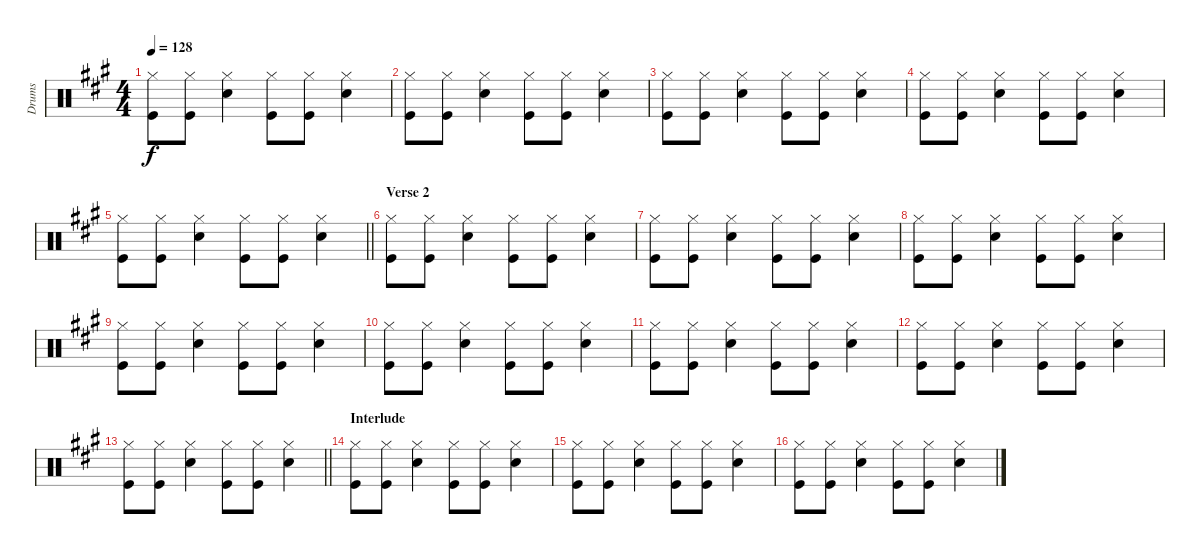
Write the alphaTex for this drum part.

\track ("Drums" "Drums") {instrument percussion}
\staff
\articulation defaults
\ts (4 4)
\tempo 128
\clef neutral
\ks a
("Hi-Hat (closed)" "Kick (hit)").8{dy f} ("Hi-Hat (closed)" "Kick (hit)").8 ("Hi-Hat (closed)" "Snare (hit) 2").4 ("Hi-Hat (closed)" "Kick (hit)").8 ("Hi-Hat (closed)" "Kick (hit)").8 ("Hi-Hat (closed)" "Snare (hit) 2").4 |
("Hi-Hat (closed)" "Kick (hit)").8 ("Hi-Hat (closed)" "Kick (hit)").8 ("Hi-Hat (closed)" "Snare (hit) 2").4 ("Hi-Hat (closed)" "Kick (hit)").8 ("Hi-Hat (closed)" "Kick (hit)").8 ("Hi-Hat (closed)" "Snare (hit) 2").4 |
("Hi-Hat (closed)" "Kick (hit)").8 ("Hi-Hat (closed)" "Kick (hit)").8 ("Hi-Hat (closed)" "Snare (hit) 2").4 ("Hi-Hat (closed)" "Kick (hit)").8 ("Hi-Hat (closed)" "Kick (hit)").8 ("Hi-Hat (closed)" "Snare (hit) 2").4 |
("Hi-Hat (closed)" "Kick (hit)").8 ("Hi-Hat (closed)" "Kick (hit)").8 ("Hi-Hat (closed)" "Snare (hit) 2").4 ("Hi-Hat (closed)" "Kick (hit)").8 ("Hi-Hat (closed)" "Kick (hit)").8 ("Hi-Hat (closed)" "Snare (hit) 2").4 |
\barLineRight lightlight
("Hi-Hat (closed)" "Kick (hit)").8 ("Hi-Hat (closed)" "Kick (hit)").8 ("Hi-Hat (closed)" "Snare (hit) 2").4 ("Hi-Hat (closed)" "Kick (hit)").8 ("Hi-Hat (closed)" "Kick (hit)").8 ("Hi-Hat (closed)" "Snare (hit) 2").4 |
\section ("" "Verse 2")
("Hi-Hat (closed)" "Kick (hit)").8 ("Hi-Hat (closed)" "Kick (hit)").8 ("Hi-Hat (closed)" "Snare (hit) 2").4 ("Hi-Hat (closed)" "Kick (hit)").8 ("Hi-Hat (closed)" "Kick (hit)").8 ("Hi-Hat (closed)" "Snare (hit) 2").4 |
("Hi-Hat (closed)" "Kick (hit)").8 ("Hi-Hat (closed)" "Kick (hit)").8 ("Hi-Hat (closed)" "Snare (hit) 2").4 ("Hi-Hat (closed)" "Kick (hit)").8 ("Hi-Hat (closed)" "Kick (hit)").8 ("Hi-Hat (closed)" "Snare (hit) 2").4 |
("Hi-Hat (closed)" "Kick (hit)").8 ("Hi-Hat (closed)" "Kick (hit)").8 ("Hi-Hat (closed)" "Snare (hit) 2").4 ("Hi-Hat (closed)" "Kick (hit)").8 ("Hi-Hat (closed)" "Kick (hit)").8 ("Hi-Hat (closed)" "Snare (hit) 2").4 |
("Hi-Hat (closed)" "Kick (hit)").8 ("Hi-Hat (closed)" "Kick (hit)").8 ("Hi-Hat (closed)" "Snare (hit) 2").4 ("Hi-Hat (closed)" "Kick (hit)").8 ("Hi-Hat (closed)" "Kick (hit)").8 ("Hi-Hat (closed)" "Snare (hit) 2").4 |
("Hi-Hat (closed)" "Kick (hit)").8 ("Hi-Hat (closed)" "Kick (hit)").8 ("Hi-Hat (closed)" "Snare (hit) 2").4 ("Hi-Hat (closed)" "Kick (hit)").8 ("Hi-Hat (closed)" "Kick (hit)").8 ("Hi-Hat (closed)" "Snare (hit) 2").4 |
("Hi-Hat (closed)" "Kick (hit)").8 ("Hi-Hat (closed)" "Kick (hit)").8 ("Hi-Hat (closed)" "Snare (hit) 2").4 ("Hi-Hat (closed)" "Kick (hit)").8 ("Hi-Hat (closed)" "Kick (hit)").8 ("Hi-Hat (closed)" "Snare (hit) 2").4 |
("Hi-Hat (closed)" "Kick (hit)").8 ("Hi-Hat (closed)" "Kick (hit)").8 ("Hi-Hat (closed)" "Snare (hit) 2").4 ("Hi-Hat (closed)" "Kick (hit)").8 ("Hi-Hat (closed)" "Kick (hit)").8 ("Hi-Hat (closed)" "Snare (hit) 2").4 |
\barLineRight lightlight
("Hi-Hat (closed)" "Kick (hit)").8 ("Hi-Hat (closed)" "Kick (hit)").8 ("Hi-Hat (closed)" "Snare (hit) 2").4 ("Hi-Hat (closed)" "Kick (hit)").8 ("Hi-Hat (closed)" "Kick (hit)").8 ("Hi-Hat (closed)" "Snare (hit) 2").4 |
\section ("" "Interlude")
("Hi-Hat (closed)" "Kick (hit)").8 ("Hi-Hat (closed)" "Kick (hit)").8 ("Hi-Hat (closed)" "Snare (hit) 2").4 ("Hi-Hat (closed)" "Kick (hit)").8 ("Hi-Hat (closed)" "Kick (hit)").8 ("Hi-Hat (closed)" "Snare (hit) 2").4 |
("Hi-Hat (closed)" "Kick (hit)").8 ("Hi-Hat (closed)" "Kick (hit)").8 ("Hi-Hat (closed)" "Snare (hit) 2").4 ("Hi-Hat (closed)" "Kick (hit)").8 ("Hi-Hat (closed)" "Kick (hit)").8 ("Hi-Hat (closed)" "Snare (hit) 2").4 |
("Hi-Hat (closed)" "Kick (hit)").8 ("Hi-Hat (closed)" "Kick (hit)").8 ("Hi-Hat (closed)" "Snare (hit) 2").4 ("Hi-Hat (closed)" "Kick (hit)").8 ("Hi-Hat (closed)" "Kick (hit)").8 ("Hi-Hat (closed)" "Snare (hit) 2").4
